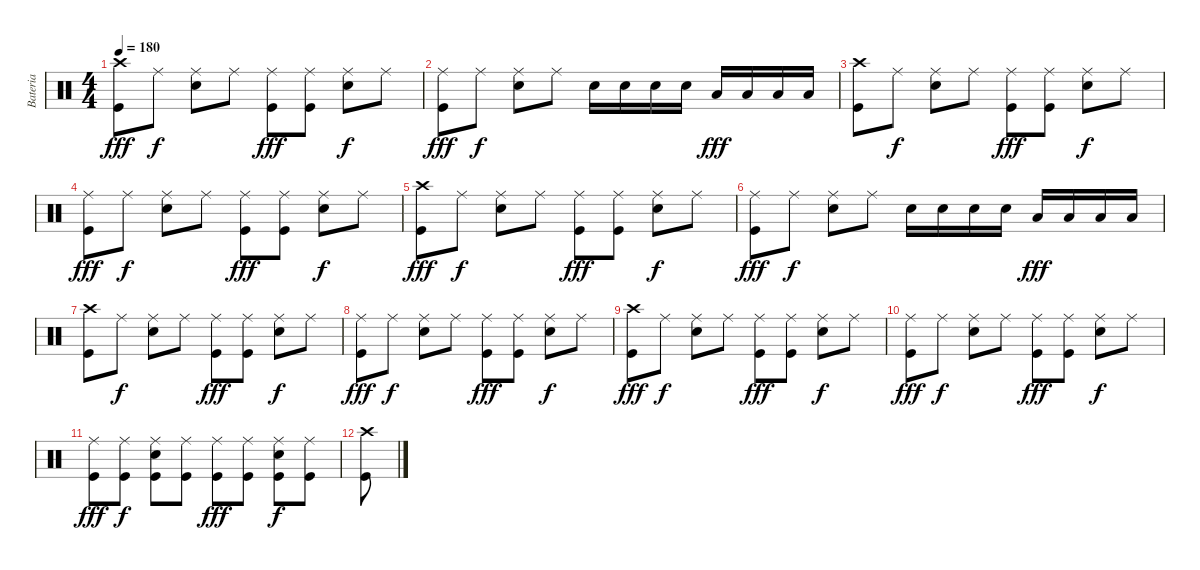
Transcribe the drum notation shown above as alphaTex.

\track ("Bateria" "Bateria") {instrument percussion}
\staff {score}
\articulation defaults
\ts (4 4)
\tempo 180
\clef neutral
\ks c
("Crash high (hit)" "Kick (hit)").8{dy fff} "Ride (middle)".8{dy f} ("Ride (middle)" "Snare (hit) 2").8 "Ride (middle)".8 ("Ride (middle)" "Kick (hit)").8{dy fff} ("Ride (middle)" "Kick (hit)").8 ("Ride (middle)" "Snare (hit) 2").8{dy f} "Ride (middle)".8 |
("Ride (middle)" "Kick (hit)").8{dy fff} "Ride (middle)".8{dy f} ("Ride (middle)" "Snare (hit) 2").8 "Ride (middle)".8 "Snare (hit) 2".16 "Snare (hit) 2".16 "Snare (hit) 2".16 "Snare (hit) 2".16 "Low Tom (hit)".16{dy fff} "Low Tom (hit)".16 "Low Tom (hit)".16 "Low Tom (hit)".16 |
("Crash high (hit)" "Kick (hit)").8 "Ride (middle)".8{dy f} ("Ride (middle)" "Snare (hit) 2").8 "Ride (middle)".8 ("Ride (middle)" "Kick (hit)").8{dy fff} ("Ride (middle)" "Kick (hit)").8 ("Ride (middle)" "Snare (hit) 2").8{dy f} "Ride (middle)".8 |
("Ride (middle)" "Kick (hit)").8{dy fff} "Ride (middle)".8{dy f} ("Ride (middle)" "Snare (hit) 2").8 "Ride (middle)".8 ("Ride (middle)" "Kick (hit)").8{dy fff} ("Ride (middle)" "Kick (hit)").8 ("Ride (middle)" "Snare (hit) 2").8{dy f} "Ride (middle)".8 |
("Crash high (hit)" "Kick (hit)").8{dy fff} "Ride (middle)".8{dy f} ("Ride (middle)" "Snare (hit) 2").8 "Ride (middle)".8 ("Ride (middle)" "Kick (hit)").8{dy fff} ("Ride (middle)" "Kick (hit)").8 ("Ride (middle)" "Snare (hit) 2").8{dy f} "Ride (middle)".8 |
("Ride (middle)" "Kick (hit)").8{dy fff} "Ride (middle)".8{dy f} ("Ride (middle)" "Snare (hit) 2").8 "Ride (middle)".8 "Snare (hit) 2".16 "Snare (hit) 2".16 "Snare (hit) 2".16 "Snare (hit) 2".16 "Low Tom (hit)".16{dy fff} "Low Tom (hit)".16 "Low Tom (hit)".16 "Low Tom (hit)".16 |
("Crash high (hit)" "Kick (hit)").8 "Ride (middle)".8{dy f} ("Ride (middle)" "Snare (hit) 2").8 "Ride (middle)".8 ("Ride (middle)" "Kick (hit)").8{dy fff} ("Ride (middle)" "Kick (hit)").8 ("Ride (middle)" "Snare (hit) 2").8{dy f} "Ride (middle)".8 |
("Ride (middle)" "Kick (hit)").8{dy fff} "Ride (middle)".8{dy f} ("Ride (middle)" "Snare (hit) 2").8 "Ride (middle)".8 ("Ride (middle)" "Kick (hit)").8{dy fff} ("Ride (middle)" "Kick (hit)").8 ("Ride (middle)" "Snare (hit) 2").8{dy f} "Ride (middle)".8 |
("Crash high (hit)" "Kick (hit)").8{dy fff} "Ride (middle)".8{dy f} ("Ride (middle)" "Snare (hit) 2").8 "Ride (middle)".8 ("Ride (middle)" "Kick (hit)").8{dy fff} ("Ride (middle)" "Kick (hit)").8 ("Ride (middle)" "Snare (hit) 2").8{dy f} "Ride (middle)".8 |
("Ride (middle)" "Kick (hit)").8{dy fff} "Ride (middle)".8{dy f} ("Ride (middle)" "Snare (hit) 2").8 "Ride (middle)".8 ("Ride (middle)" "Kick (hit)").8{dy fff} ("Ride (middle)" "Kick (hit)").8 ("Ride (middle)" "Snare (hit) 2").8{dy f} "Ride (middle)".8 |
("Ride (middle)" "Kick (hit)").8{dy fff} ("Ride (middle)" "Kick (hit)").8{dy f} ("Ride (middle)" "Snare (hit) 2" "Kick (hit)").8 ("Ride (middle)" "Kick (hit)").8 ("Ride (middle)" "Kick (hit)").8{dy fff} ("Ride (middle)" "Kick (hit)").8 ("Ride (middle)" "Snare (hit) 2" "Kick (hit)").8{dy f} ("Ride (middle)" "Kick (hit)").8 |
("Crash high (hit)" "Kick (hit)").8
